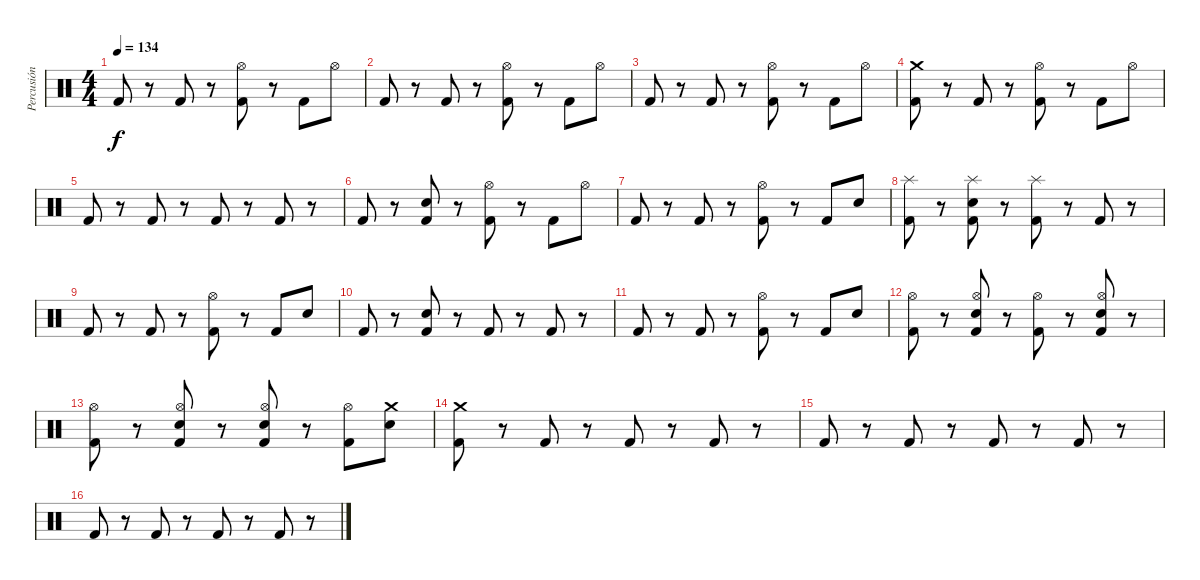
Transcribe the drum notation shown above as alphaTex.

\track ("Percusión" "Percusión") {instrument percussion}
\staff {score}
\articulation defaults
\ts (4 4)
\tempo 134
\clef neutral
\ks c "Kick (hit) 2".8{dy f}
r.8 "Kick (hit) 2".8 r.8 ("Hi-Hat (open)" "Kick (hit) 2").8 r.8 "Kick (hit) 2".8 "Hi-Hat (open)".8 |
"Kick (hit) 2".8 r.8 "Kick (hit) 2".8 r.8 ("Hi-Hat (open)" "Kick (hit) 2").8 r.8 "Kick (hit) 2".8 "Hi-Hat (open)".8 |
"Kick (hit) 2".8 r.8 "Kick (hit) 2".8 r.8 ("Hi-Hat (open)" "Kick (hit) 2").8 r.8 "Kick (hit) 2".8 "Hi-Hat (open)".8 |
("Crash medium (hit)" "Kick (hit) 2").8 r.8 "Kick (hit) 2".8 r.8 ("Hi-Hat (open)" "Kick (hit) 2").8 r.8 "Kick (hit) 2".8 "Hi-Hat (open)".8 |
"Kick (hit) 2".8 r.8 "Kick (hit) 2".8 r.8 "Kick (hit) 2".8 r.8 "Kick (hit) 2".8 r.8 |
"Kick (hit) 2".8 r.8 ("Snare (hit) 2" "Kick (hit) 2").8 r.8 ("Hi-Hat (open)" "Kick (hit) 2").8 r.8 "Kick (hit) 2".8 "Hi-Hat (open)".8 |
"Kick (hit) 2".8 r.8 "Kick (hit) 2".8 r.8 ("Hi-Hat (open)" "Kick (hit) 2").8 r.8 "Kick (hit) 2".8 "Snare (hit) 2".8 |
("Splash (hit)" "Kick (hit) 2").8 r.8 ("Splash (hit)" "Snare (hit) 2" "Kick (hit) 2").8 r.8 ("Splash (hit)" "Kick (hit) 2").8 r.8 "Kick (hit) 2".8 r.8 |
"Kick (hit) 2".8 r.8 "Kick (hit) 2".8 r.8 ("Hi-Hat (open)" "Kick (hit) 2").8 r.8 "Kick (hit) 2".8 "Snare (hit) 2".8 |
"Kick (hit) 2".8 r.8 ("Snare (hit) 2" "Kick (hit) 2").8 r.8 "Kick (hit) 2".8 r.8 "Kick (hit) 2".8 r.8 |
"Kick (hit) 2".8 r.8 "Kick (hit) 2".8 r.8 ("Hi-Hat (open)" "Kick (hit) 2").8 r.8 "Kick (hit) 2".8 "Snare (hit) 2".8 |
("Hi-Hat (open)" "Kick (hit) 2").8 r.8 ("Hi-Hat (open)" "Snare (hit) 2" "Kick (hit) 2").8 r.8 ("Hi-Hat (open)" "Kick (hit) 2").8 r.8 ("Hi-Hat (open)" "Snare (hit) 2" "Kick (hit) 2").8 r.8 |
("Hi-Hat (open)" "Kick (hit) 2").8 r.8 ("Hi-Hat (open)" "Snare (hit) 2" "Kick (hit) 2").8 r.8 ("Hi-Hat (open)" "Snare (hit) 2" "Kick (hit) 2").8 r.8 ("Hi-Hat (open)" "Kick (hit) 2").8 ("Crash medium (hit)" "Snare (hit) 2").8 |
("Crash medium (hit)" "Kick (hit) 2").8 r.8 "Kick (hit) 2".8 r.8 "Kick (hit) 2".8 r.8 "Kick (hit) 2".8 r.8 |
"Kick (hit) 2".8 r.8 "Kick (hit) 2".8 r.8 "Kick (hit) 2".8 r.8 "Kick (hit) 2".8 r.8 |
"Kick (hit) 2".8 r.8 "Kick (hit) 2".8 r.8 "Kick (hit) 2".8 r.8 "Kick (hit) 2".8 r.8
